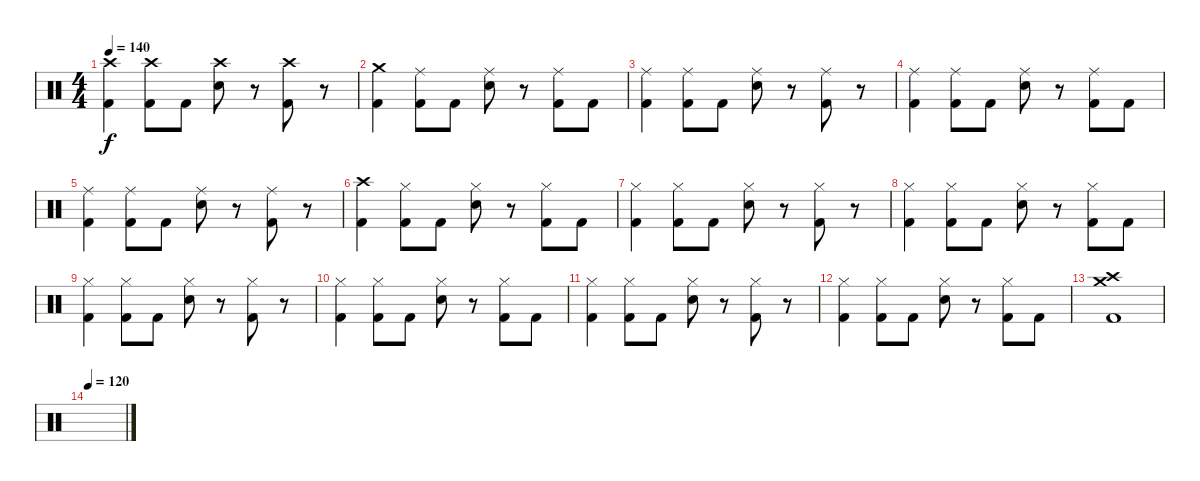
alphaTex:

\track "" {instrument percussion}
\staff {score}
\articulation defaults
\ts (4 4)
\tempo 140
\clef neutral
\ks c
("Kick (hit) 2" "Crash high (hit)").4{dy f} ("Kick (hit) 2" "Crash high (hit)").8 "Kick (hit) 2".8 ("Snare (hit) 2" "Crash high (hit)").8 r.8 ("Kick (hit) 2" "Crash high (hit)").8 r.8 |
("Kick (hit) 2" "Crash medium (hit)").4 ("Kick (hit) 2" "Ride (middle)").8 "Kick (hit) 2".8 ("Snare (hit) 2" "Ride (middle)").8 r.8 ("Kick (hit) 2" "Ride (middle)").8 "Kick (hit) 2".8 |
("Kick (hit) 2" "Ride (middle)").4 ("Kick (hit) 2" "Ride (middle)").8 "Kick (hit) 2".8 ("Snare (hit) 2" "Ride (middle)").8 r.8 ("Kick (hit) 2" "Ride (middle)").8 r.8 |
("Kick (hit) 2" "Ride (middle)").4 ("Kick (hit) 2" "Ride (middle)").8 "Kick (hit) 2".8 ("Snare (hit) 2" "Ride (middle)").8 r.8 ("Kick (hit) 2" "Ride (middle)").8 "Kick (hit) 2".8 |
("Kick (hit) 2" "Ride (middle)").4 ("Kick (hit) 2" "Ride (middle)").8 "Kick (hit) 2".8 ("Snare (hit) 2" "Ride (middle)").8 r.8 ("Kick (hit) 2" "Ride (middle)").8 r.8 |
("Kick (hit) 2" "Crash high (hit)").4 ("Kick (hit) 2" "Hi-Hat (closed)").8 "Kick (hit) 2".8 ("Snare (hit) 2" "Hi-Hat (closed)").8 r.8 ("Kick (hit) 2" "Hi-Hat (closed)").8 "Kick (hit) 2".8 |
("Kick (hit) 2" "Hi-Hat (closed)").4 ("Kick (hit) 2" "Hi-Hat (closed)").8 "Kick (hit) 2".8 ("Snare (hit) 2" "Hi-Hat (closed)").8 r.8 ("Kick (hit) 2" "Hi-Hat (closed)").8 r.8 |
("Kick (hit) 2" "Hi-Hat (closed)").4 ("Kick (hit) 2" "Hi-Hat (closed)").8 "Kick (hit) 2".8 ("Snare (hit) 2" "Hi-Hat (closed)").8 r.8 ("Kick (hit) 2" "Hi-Hat (closed)").8 "Kick (hit) 2".8 |
("Kick (hit) 2" "Hi-Hat (closed)").4 ("Kick (hit) 2" "Hi-Hat (closed)").8 "Kick (hit) 2".8 ("Snare (hit) 2" "Hi-Hat (closed)").8 r.8 ("Kick (hit) 2" "Hi-Hat (closed)").8 r.8 |
("Kick (hit) 2" "Hi-Hat (closed)").4 ("Kick (hit) 2" "Hi-Hat (closed)").8 "Kick (hit) 2".8 ("Snare (hit) 2" "Hi-Hat (closed)").8 r.8 ("Kick (hit) 2" "Hi-Hat (closed)").8 "Kick (hit) 2".8 |
("Kick (hit) 2" "Hi-Hat (closed)").4 ("Kick (hit) 2" "Hi-Hat (closed)").8 "Kick (hit) 2".8 ("Snare (hit) 2" "Hi-Hat (closed)").8 r.8 ("Kick (hit) 2" "Hi-Hat (closed)").8 r.8 |
("Kick (hit) 2" "Hi-Hat (closed)").4 ("Kick (hit) 2" "Hi-Hat (closed)").8 "Kick (hit) 2".8 ("Snare (hit) 2" "Hi-Hat (closed)").8 r.8 ("Kick (hit) 2" "Hi-Hat (closed)").8 "Kick (hit) 2".8 |
("Kick (hit) 2" "Crash high (hit)" "Crash medium (hit)").1 |
\tempo 120
